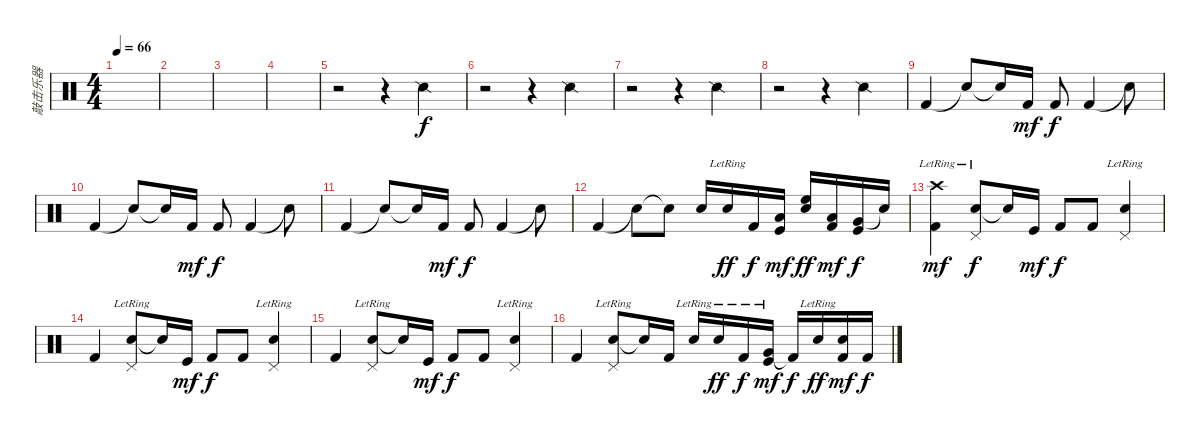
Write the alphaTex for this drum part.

\track ("敲击乐器" "敲击乐器") {instrument percussion}
\staff {score}
\articulation defaults
\ts (4 4)
\tempo 66
\clef neutral
\ks c
|
|
|
|
r.2 r.4 "Snare (side stick) 2".4 |
r.2 r.4 "Snare (side stick) 2".4 |
r.2 r.4 "Snare (side stick) 2".4 |
r.2 r.4 "Snare (side stick) 2".4 |
"Kick (hit) 2".4{dy f} "Snare (hit)"{t}.8 "Snare (hit)"{t}.16 "Kick (hit) 2".16{dy mf} "Kick (hit) 2".8{dy f} "Kick (hit) 2".4 "Snare (hit)"{t}.8 |
"Kick (hit) 2".4 "Snare (hit)"{t}.8 "Snare (hit)"{t}.16 "Kick (hit) 2".16{dy mf} "Kick (hit) 2".8{dy f} "Kick (hit) 2".4 "Snare (hit)"{t}.8 |
"Kick (hit) 2".4 "Snare (hit)"{t}.8 "Snare (hit)"{t}.16 "Kick (hit) 2".16{dy mf} "Kick (hit) 2".8{dy f} "Kick (hit) 2".4 "Snare (hit)"{t}.8 |
"Kick (hit) 2".4 "Snare (hit)"{t}.8 "Snare (hit)"{t}.8 "Snare (hit) 2".16 "Electric Snare (hit)"{lr}.16{dy ff} "Kick (hit) 2".16{dy f} ("Low Tom (hit)" "Kick (hit)").16{dy mf} ("High Floor Tom (hit)" "Electric Snare (hit)").16{dy ff} ("Low Tom (hit)" "Kick (hit) 2").16{dy mf} ("Very Low Tom (hit)" "Kick (hit)").16{dy f} "Snare (hit)"{t}.16 |
("Kick (hit) 2" "Crash high (hit)"{lr}).4{dy mf} ("Electric Snare (hit)" "Pedal Hi-Hat (hit)"{lr}).8{dy f} "Snare (hit)"{t}.16 "Kick (hit)".16{dy mf} "Kick (hit) 2".8{dy f} "Kick (hit) 2".8 ("Electric Snare (hit)" "Pedal Hi-Hat (hit)"{lr}).4 |
"Kick (hit) 2".4 ("Electric Snare (hit)" "Pedal Hi-Hat (hit)"{lr}).8 "Snare (hit)"{t}.16 "Kick (hit)".16{dy mf} "Kick (hit) 2".8{dy f} "Kick (hit) 2".8 ("Electric Snare (hit)" "Pedal Hi-Hat (hit)"{lr}).4 |
"Kick (hit) 2".4 ("Electric Snare (hit)" "Pedal Hi-Hat (hit)"{lr}).8 "Snare (hit)"{t}.16 "Kick (hit)".16{dy mf} "Kick (hit) 2".8{dy f} "Kick (hit) 2".8 ("Electric Snare (hit)" "Pedal Hi-Hat (hit)"{lr}).4 |
"Kick (hit) 2".4 ("Electric Snare (hit)" "Pedal Hi-Hat (hit)"{lr}).8 "Snare (hit)"{t}.16 "Kick (hit) 2".16 "Snare (hit) 2"{lr}.16 "Electric Snare (hit)"{lr}.16{dy ff} "Kick (hit) 2"{lr}.16{dy f} ("Very Low Tom (hit)"{lr} "Kick (hit)").16{dy mf} "Kick (hit) 2"{t}.16{dy f} "Snare (hit) 2"{lr}.16{dy ff} ("Electric Snare (hit)"{lr} "Kick (hit) 2"{lr}).16{dy mf} "Kick (hit) 2".16{dy f}
